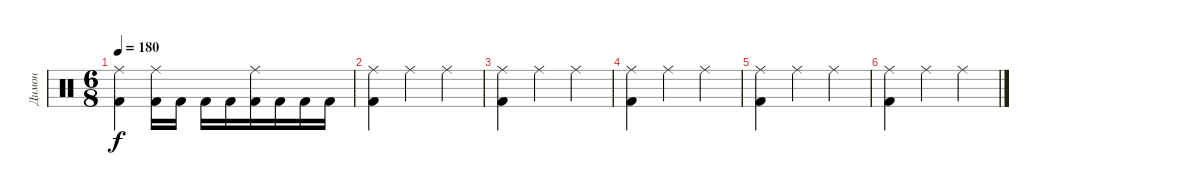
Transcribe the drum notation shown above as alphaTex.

\track ("Димон" "Димон") {instrument percussion}
\staff {score}
\articulation defaults
\ts (6 8)
\tempo 180
\clef neutral
\ks c
("Kick (hit) 2" "Ride (middle)").4{dy f} ("Kick (hit) 2" "Ride (middle)").16 "Kick (hit) 2".16 "Kick (hit) 2".16 "Kick (hit) 2".16 ("Kick (hit) 2" "Ride (middle)").16 "Kick (hit) 2".16 "Kick (hit) 2".16 "Kick (hit) 2".16 |
("Kick (hit) 2" "Ride (middle)").4 "Ride (middle)".4 "Ride (middle)".4 |
("Kick (hit) 2" "Ride (middle)").4 "Ride (middle)".4 "Ride (middle)".4 |
("Kick (hit) 2" "Ride (middle)").4 "Ride (middle)".4 "Ride (middle)".4 |
("Kick (hit) 2" "Ride (middle)").4 "Ride (middle)".4 "Ride (middle)".4 |
("Kick (hit) 2" "Ride (middle)").4 "Ride (middle)".4 "Ride (middle)".4
